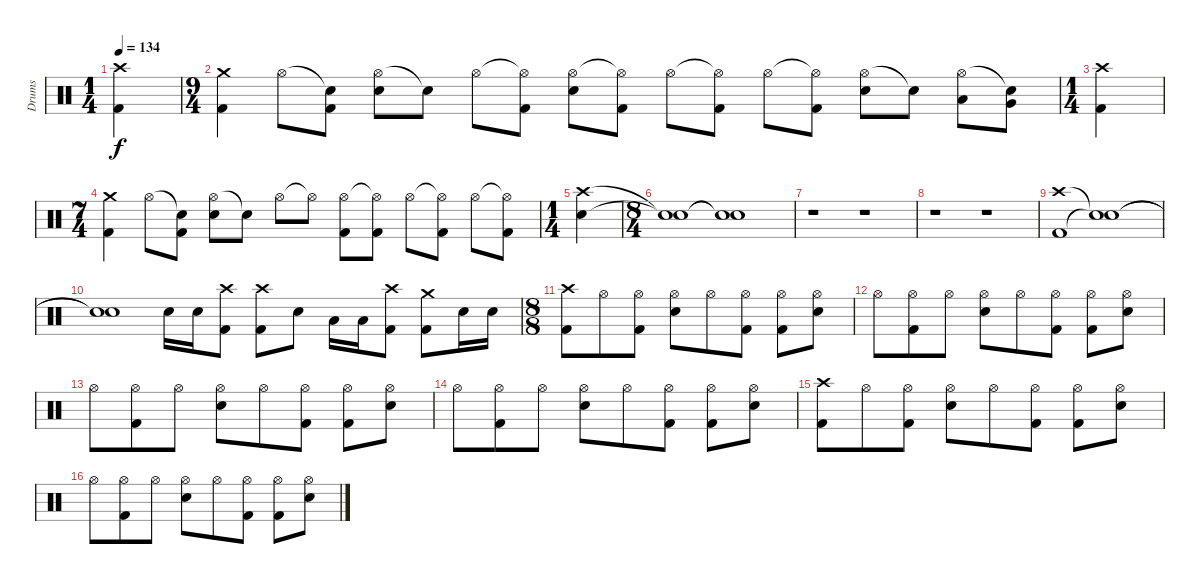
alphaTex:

\track ("Drums" "Drums") {instrument percussion}
\staff {score}
\articulation defaults
\ts (1 4)
\tempo 134
\clef neutral
\ks c
("Crash high (hit)" "Kick (hit) 2").4{dy f} |
\ts (9 4)
("Crash medium (hit)" "Kick (hit) 2").4 "Hi-Hat (open)".8 ("Snare (hit)"{t} "Kick (hit) 2").8 ("Hi-Hat (open)" "Snare (hit) 2").8 "Snare (hit)"{t}.8 "Hi-Hat (open)".8 ("Hi-Hat (open)"{t} "Kick (hit) 2").8 ("Hi-Hat (open)" "Snare (hit) 2").8 ("Hi-Hat (open)"{t} "Kick (hit) 2").8 "Hi-Hat (open)".8 ("Hi-Hat (open)"{t} "Kick (hit) 2").8 "Hi-Hat (open)".8 ("Hi-Hat (open)"{t} "Kick (hit) 2").8 ("Hi-Hat (open)" "Snare (hit) 2").8 "Snare (hit)"{t}.8 ("Hi-Hat (open)" "Low Tom (hit)").8 ("Snare (hit)"{t} "Very Low Tom (hit)").8 |
\ts (1 4)
("Crash high (hit)" "Kick (hit) 2").4 |
\ts (7 4)
("Crash medium (hit)" "Kick (hit) 2").4 "Hi-Hat (open)".8 ("Snare (hit)"{t} "Kick (hit) 2").8 ("Hi-Hat (open)" "Snare (hit) 2").8 "Snare (hit)"{t}.8 "Hi-Hat (open)".8 "Hi-Hat (open)"{t}.8 ("Hi-Hat (open)" "Kick (hit) 2").8 ("Hi-Hat (open)"{t} "Kick (hit) 2").8 "Hi-Hat (open)".8 ("Hi-Hat (open)"{t} "Kick (hit) 2").8 "Hi-Hat (open)".8 ("Hi-Hat (open)"{t} "Kick (hit) 2").8 |
\ts (1 4)
("Crash high (hit)" "Snare (hit) 2").4 |
\ts (8 4)
("Snare (hit)"{t} "Snare (hit)"{t}).1 ("Snare (hit)"{t} "Snare (hit)"{t}).1 |
r.1 r.1 |
r.1 r.1 |
("Crash high (hit)" "Kick (hit) 2").1 ("Snare (hit)"{t} "Snare (hit)"{t}).1 |
("Snare (hit)"{t} "Snare (hit)"{t}).1 "Snare (hit) 2".16 "Snare (hit) 2".16 ("Crash high (hit)" "Kick (hit) 2").8 ("Crash high (hit)" "Kick (hit) 2").8 "Snare (hit) 2".8 "Low Tom (hit)".16 "Low Tom (hit)".16 ("Crash high (hit)" "Kick (hit) 2").8 ("Crash medium (hit)" "Kick (hit) 2").8 "Snare (hit) 2".16 "Snare (hit) 2".16 |
\ts (8 8)
("Crash high (hit)" "Kick (hit) 2").8 "Hi-Hat (open)".8 ("Hi-Hat (open)" "Kick (hit) 2").8 ("Hi-Hat (open)" "Snare (hit) 2").8 "Hi-Hat (open)".8 ("Hi-Hat (open)" "Kick (hit) 2").8 ("Hi-Hat (open)" "Kick (hit) 2").8 ("Hi-Hat (open)" "Snare (hit) 2").8 |
"Hi-Hat (open)".8 ("Hi-Hat (open)" "Kick (hit) 2").8 "Hi-Hat (open)".8 ("Hi-Hat (open)" "Snare (hit) 2").8 "Hi-Hat (open)".8 ("Hi-Hat (open)" "Kick (hit) 2").8 ("Hi-Hat (open)" "Kick (hit) 2").8 ("Hi-Hat (open)" "Snare (hit) 2").8 |
"Hi-Hat (open)".8 ("Hi-Hat (open)" "Kick (hit) 2").8 "Hi-Hat (open)".8 ("Hi-Hat (open)" "Snare (hit) 2").8 "Hi-Hat (open)".8 ("Hi-Hat (open)" "Kick (hit) 2").8 ("Hi-Hat (open)" "Kick (hit) 2").8 ("Hi-Hat (open)" "Snare (hit) 2").8 |
"Hi-Hat (open)".8 ("Hi-Hat (open)" "Kick (hit) 2").8 "Hi-Hat (open)".8 ("Hi-Hat (open)" "Snare (hit) 2").8 "Hi-Hat (open)".8 ("Hi-Hat (open)" "Kick (hit) 2").8 ("Hi-Hat (open)" "Kick (hit) 2").8 ("Hi-Hat (open)" "Snare (hit) 2").8 |
("Crash high (hit)" "Kick (hit) 2").8 "Hi-Hat (open)".8 ("Hi-Hat (open)" "Kick (hit) 2").8 ("Hi-Hat (open)" "Snare (hit) 2").8 "Hi-Hat (open)".8 ("Hi-Hat (open)" "Kick (hit) 2").8 ("Hi-Hat (open)" "Kick (hit) 2").8 ("Hi-Hat (open)" "Snare (hit) 2").8 |
"Hi-Hat (open)".8 ("Hi-Hat (open)" "Kick (hit) 2").8 "Hi-Hat (open)".8 ("Hi-Hat (open)" "Snare (hit) 2").8 "Hi-Hat (open)".8 ("Hi-Hat (open)" "Kick (hit) 2").8 ("Hi-Hat (open)" "Kick (hit) 2").8 ("Hi-Hat (open)" "Snare (hit) 2").8
